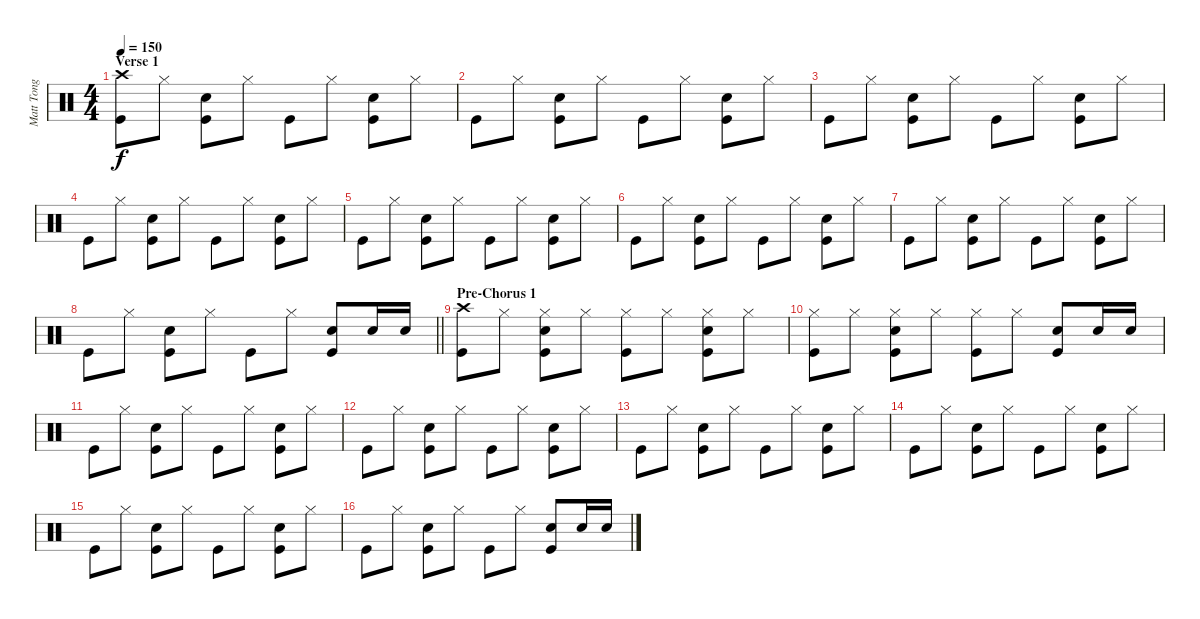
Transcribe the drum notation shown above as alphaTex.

\track ("Matt Tong (Drums)" "Matt Tong ") {instrument percussion}
\staff {score}
\articulation defaults
\ts (4 4)
\section ("" "Verse 1")
\tempo 150
\clef neutral
\ks c
("Crash high (hit)" "Kick (hit)").8{dy f} "Hi-Hat (closed)".8 ("Electric Snare (hit)" "Kick (hit)").8 "Hi-Hat (closed)".8 "Kick (hit)".8 "Hi-Hat (closed)".8 ("Electric Snare (hit)" "Kick (hit)").8 "Hi-Hat (closed)".8 |
"Kick (hit)".8 "Hi-Hat (closed)".8 ("Electric Snare (hit)" "Kick (hit)").8 "Hi-Hat (closed)".8 "Kick (hit)".8 "Hi-Hat (closed)".8 ("Electric Snare (hit)" "Kick (hit)").8 "Hi-Hat (closed)".8 |
"Kick (hit)".8 "Hi-Hat (closed)".8 ("Electric Snare (hit)" "Kick (hit)").8 "Hi-Hat (closed)".8 "Kick (hit)".8 "Hi-Hat (closed)".8 ("Electric Snare (hit)" "Kick (hit)").8 "Hi-Hat (closed)".8 |
"Kick (hit)".8 "Hi-Hat (closed)".8 ("Electric Snare (hit)" "Kick (hit)").8 "Hi-Hat (closed)".8 "Kick (hit)".8 "Hi-Hat (closed)".8 ("Electric Snare (hit)" "Kick (hit)").8 "Hi-Hat (closed)".8 |
"Kick (hit)".8 "Hi-Hat (closed)".8 ("Electric Snare (hit)" "Kick (hit)").8 "Hi-Hat (closed)".8 "Kick (hit)".8 "Hi-Hat (closed)".8 ("Electric Snare (hit)" "Kick (hit)").8 "Hi-Hat (closed)".8 |
"Kick (hit)".8 "Hi-Hat (closed)".8 ("Electric Snare (hit)" "Kick (hit)").8 "Hi-Hat (closed)".8 "Kick (hit)".8 "Hi-Hat (closed)".8 ("Electric Snare (hit)" "Kick (hit)").8 "Hi-Hat (closed)".8 |
"Kick (hit)".8 "Hi-Hat (closed)".8 ("Electric Snare (hit)" "Kick (hit)").8 "Hi-Hat (closed)".8 "Kick (hit)".8 "Hi-Hat (closed)".8 ("Electric Snare (hit)" "Kick (hit)").8 "Hi-Hat (closed)".8 |
\barLineRight lightlight "Kick (hit)".8 "Hi-Hat (closed)".8
("Electric Snare (hit)" "Kick (hit)").8 "Hi-Hat (closed)".8 "Kick (hit)".8 "Hi-Hat (closed)".8 ("Electric Snare (hit)" "Kick (hit)").8 "Electric Snare (hit)".16 "Electric Snare (hit)".16 |
\section ("" "Pre-Chorus 1")
("Crash high (hit)" "Kick (hit)").8 "Hi-Hat (closed)".8 ("Hi-Hat (closed)" "Electric Snare (hit)" "Kick (hit)").8 "Hi-Hat (closed)".8 ("Hi-Hat (closed)" "Kick (hit)").8 "Hi-Hat (closed)".8 ("Hi-Hat (closed)" "Electric Snare (hit)" "Kick (hit)").8 "Hi-Hat (closed)".8 |
("Hi-Hat (closed)" "Kick (hit)").8 "Hi-Hat (closed)".8 ("Hi-Hat (closed)" "Electric Snare (hit)" "Kick (hit)").8 "Hi-Hat (closed)".8 ("Hi-Hat (closed)" "Kick (hit)").8 "Hi-Hat (closed)".8 ("Electric Snare (hit)" "Kick (hit)").8 "Electric Snare (hit)".16 "Electric Snare (hit)".16 |
"Kick (hit)".8 "Hi-Hat (closed)".8 ("Electric Snare (hit)" "Kick (hit)").8 "Hi-Hat (closed)".8 "Kick (hit)".8 "Hi-Hat (closed)".8 ("Electric Snare (hit)" "Kick (hit)").8 "Hi-Hat (closed)".8 |
"Kick (hit)".8 "Hi-Hat (closed)".8 ("Electric Snare (hit)" "Kick (hit)").8 "Hi-Hat (closed)".8 "Kick (hit)".8 "Hi-Hat (closed)".8 ("Electric Snare (hit)" "Kick (hit)").8 "Hi-Hat (closed)".8 |
"Kick (hit)".8 "Hi-Hat (closed)".8 ("Electric Snare (hit)" "Kick (hit)").8 "Hi-Hat (closed)".8 "Kick (hit)".8 "Hi-Hat (closed)".8 ("Electric Snare (hit)" "Kick (hit)").8 "Hi-Hat (closed)".8 |
"Kick (hit)".8 "Hi-Hat (closed)".8 ("Electric Snare (hit)" "Kick (hit)").8 "Hi-Hat (closed)".8 "Kick (hit)".8 "Hi-Hat (closed)".8 ("Electric Snare (hit)" "Kick (hit)").8 "Hi-Hat (closed)".8 |
"Kick (hit)".8 "Hi-Hat (closed)".8 ("Electric Snare (hit)" "Kick (hit)").8 "Hi-Hat (closed)".8 "Kick (hit)".8 "Hi-Hat (closed)".8 ("Electric Snare (hit)" "Kick (hit)").8 "Hi-Hat (closed)".8 |
"Kick (hit)".8 "Hi-Hat (closed)".8 ("Electric Snare (hit)" "Kick (hit)").8 "Hi-Hat (closed)".8 "Kick (hit)".8 "Hi-Hat (closed)".8 ("Electric Snare (hit)" "Kick (hit)").8 "Electric Snare (hit)".16 "Electric Snare (hit)".16
